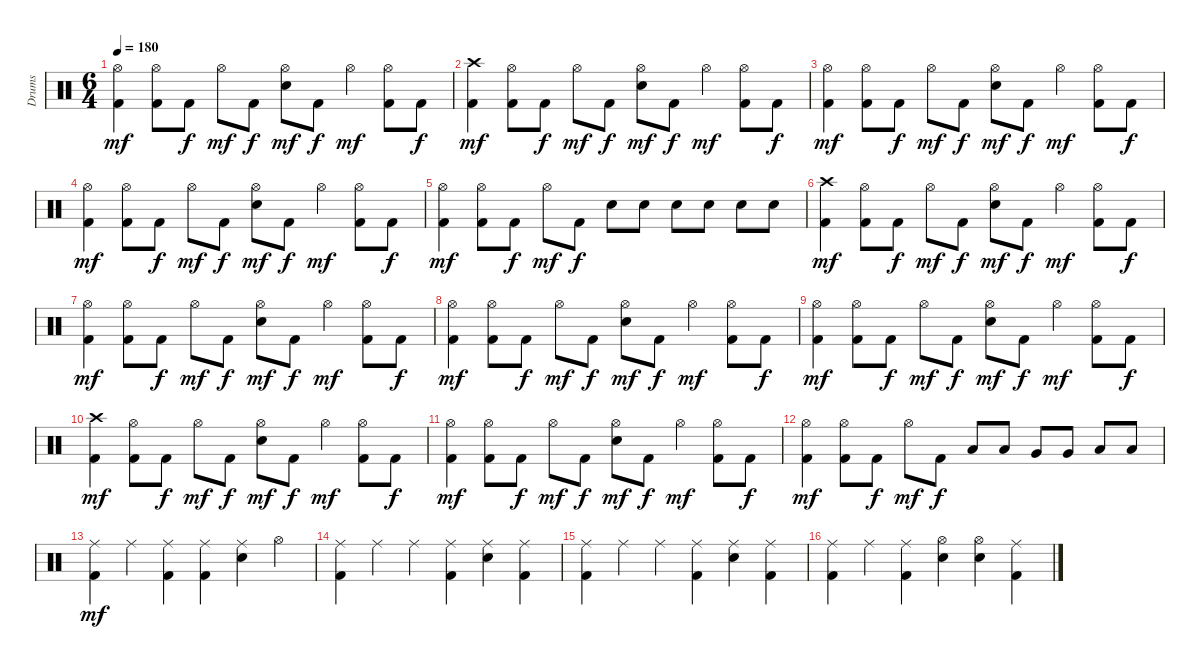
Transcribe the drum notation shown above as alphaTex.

\track ("Drums" "Drums") {instrument percussion}
\staff {score}
\articulation defaults
\ts (6 4)
\tempo 180
\clef neutral
\ks c
("Hi-Hat (open)" "Kick (hit) 2").4{dy mf} ("Hi-Hat (open)" "Kick (hit) 2").8 "Kick (hit) 2".8{dy f} "Hi-Hat (open)".8{dy mf} "Kick (hit) 2".8{dy f} ("Hi-Hat (open)" "Snare (hit) 2").8{dy mf} "Kick (hit) 2".8{dy f} "Hi-Hat (open)".4{dy mf} ("Hi-Hat (open)" "Kick (hit) 2").8 "Kick (hit) 2".8{dy f} |
("Crash high (hit)" "Kick (hit) 2").4{dy mf} ("Hi-Hat (open)" "Kick (hit) 2").8 "Kick (hit) 2".8{dy f} "Hi-Hat (open)".8{dy mf} "Kick (hit) 2".8{dy f} ("Hi-Hat (open)" "Snare (hit) 2").8{dy mf} "Kick (hit) 2".8{dy f} "Hi-Hat (open)".4{dy mf} ("Hi-Hat (open)" "Kick (hit) 2").8 "Kick (hit) 2".8{dy f} |
("Hi-Hat (open)" "Kick (hit) 2").4{dy mf} ("Hi-Hat (open)" "Kick (hit) 2").8 "Kick (hit) 2".8{dy f} "Hi-Hat (open)".8{dy mf} "Kick (hit) 2".8{dy f} ("Hi-Hat (open)" "Snare (hit) 2").8{dy mf} "Kick (hit) 2".8{dy f} "Hi-Hat (open)".4{dy mf} ("Hi-Hat (open)" "Kick (hit) 2").8 "Kick (hit) 2".8{dy f} |
("Hi-Hat (open)" "Kick (hit) 2").4{dy mf} ("Hi-Hat (open)" "Kick (hit) 2").8 "Kick (hit) 2".8{dy f} "Hi-Hat (open)".8{dy mf} "Kick (hit) 2".8{dy f} ("Hi-Hat (open)" "Snare (hit) 2").8{dy mf} "Kick (hit) 2".8{dy f} "Hi-Hat (open)".4{dy mf} ("Hi-Hat (open)" "Kick (hit) 2").8 "Kick (hit) 2".8{dy f} |
("Hi-Hat (open)" "Kick (hit) 2").4{dy mf} ("Hi-Hat (open)" "Kick (hit) 2").8 "Kick (hit) 2".8{dy f} "Hi-Hat (open)".8{dy mf} "Kick (hit) 2".8{dy f} "Snare (hit) 2".8 "Snare (hit) 2".8 "Snare (hit) 2".8 "Snare (hit) 2".8 "Snare (hit) 2".8 "Snare (hit) 2".8 |
("Crash high (hit)" "Kick (hit) 2").4{dy mf} ("Hi-Hat (open)" "Kick (hit) 2").8 "Kick (hit) 2".8{dy f} "Hi-Hat (open)".8{dy mf} "Kick (hit) 2".8{dy f} ("Hi-Hat (open)" "Snare (hit) 2").8{dy mf} "Kick (hit) 2".8{dy f} "Hi-Hat (open)".4{dy mf} ("Hi-Hat (open)" "Kick (hit) 2").8 "Kick (hit) 2".8{dy f} |
("Hi-Hat (open)" "Kick (hit) 2").4{dy mf} ("Hi-Hat (open)" "Kick (hit) 2").8 "Kick (hit) 2".8{dy f} "Hi-Hat (open)".8{dy mf} "Kick (hit) 2".8{dy f} ("Hi-Hat (open)" "Snare (hit) 2").8{dy mf} "Kick (hit) 2".8{dy f} "Hi-Hat (open)".4{dy mf} ("Hi-Hat (open)" "Kick (hit) 2").8 "Kick (hit) 2".8{dy f} |
("Hi-Hat (open)" "Kick (hit) 2").4{dy mf} ("Hi-Hat (open)" "Kick (hit) 2").8 "Kick (hit) 2".8{dy f} "Hi-Hat (open)".8{dy mf} "Kick (hit) 2".8{dy f} ("Hi-Hat (open)" "Snare (hit) 2").8{dy mf} "Kick (hit) 2".8{dy f} "Hi-Hat (open)".4{dy mf} ("Hi-Hat (open)" "Kick (hit) 2").8 "Kick (hit) 2".8{dy f} |
("Hi-Hat (open)" "Kick (hit) 2").4{dy mf} ("Hi-Hat (open)" "Kick (hit) 2").8 "Kick (hit) 2".8{dy f} "Hi-Hat (open)".8{dy mf} "Kick (hit) 2".8{dy f} ("Hi-Hat (open)" "Snare (hit) 2").8{dy mf} "Kick (hit) 2".8{dy f} "Hi-Hat (open)".4{dy mf} ("Hi-Hat (open)" "Kick (hit) 2").8 "Kick (hit) 2".8{dy f} |
("Crash high (hit)" "Kick (hit) 2").4{dy mf} ("Hi-Hat (open)" "Kick (hit) 2").8 "Kick (hit) 2".8{dy f} "Hi-Hat (open)".8{dy mf} "Kick (hit) 2".8{dy f} ("Hi-Hat (open)" "Snare (hit) 2").8{dy mf} "Kick (hit) 2".8{dy f} "Hi-Hat (open)".4{dy mf} ("Hi-Hat (open)" "Kick (hit) 2").8 "Kick (hit) 2".8{dy f} |
("Hi-Hat (open)" "Kick (hit) 2").4{dy mf} ("Hi-Hat (open)" "Kick (hit) 2").8 "Kick (hit) 2".8{dy f} "Hi-Hat (open)".8{dy mf} "Kick (hit) 2".8{dy f} ("Hi-Hat (open)" "Snare (hit) 2").8{dy mf} "Kick (hit) 2".8{dy f} "Hi-Hat (open)".4{dy mf} ("Hi-Hat (open)" "Kick (hit) 2").8 "Kick (hit) 2".8{dy f} |
("Hi-Hat (open)" "Kick (hit) 2").4{dy mf} ("Hi-Hat (open)" "Kick (hit) 2").8 "Kick (hit) 2".8{dy f} "Hi-Hat (open)".8{dy mf} "Kick (hit) 2".8{dy f} "Low Tom (hit)".8 "Low Tom (hit)".8 "Very Low Tom (hit)".8 "Very Low Tom (hit)".8 "Low Floor Tom (hit)".8 "Low Floor Tom (hit)".8 |
("Ride (middle)" "Kick (hit) 2").4{dy mf} "Ride (middle)".4 ("Ride (middle)" "Kick (hit) 2").4 ("Ride (middle)" "Kick (hit) 2").4 ("Ride (middle)" "Snare (hit) 2").4 "Hi-Hat (open)".4 |
("Ride (middle)" "Kick (hit) 2").4 "Ride (middle)".4 "Ride (middle)".4 ("Ride (middle)" "Kick (hit) 2").4 ("Ride (middle)" "Snare (hit) 2").4 ("Ride (middle)" "Kick (hit) 2").4 |
("Ride (middle)" "Kick (hit) 2").4 "Ride (middle)".4 "Ride (middle)".4 ("Ride (middle)" "Kick (hit) 2").4 ("Ride (middle)" "Snare (hit) 2").4 ("Ride (middle)" "Kick (hit) 2").4 |
("Ride (middle)" "Kick (hit) 2").4 "Ride (middle)".4 ("Ride (middle)" "Kick (hit) 2").4 ("Hi-Hat (open)" "Snare (hit) 2").4 ("Hi-Hat (open)" "Snare (hit) 2").4 ("Ride (middle)" "Kick (hit) 2").4
